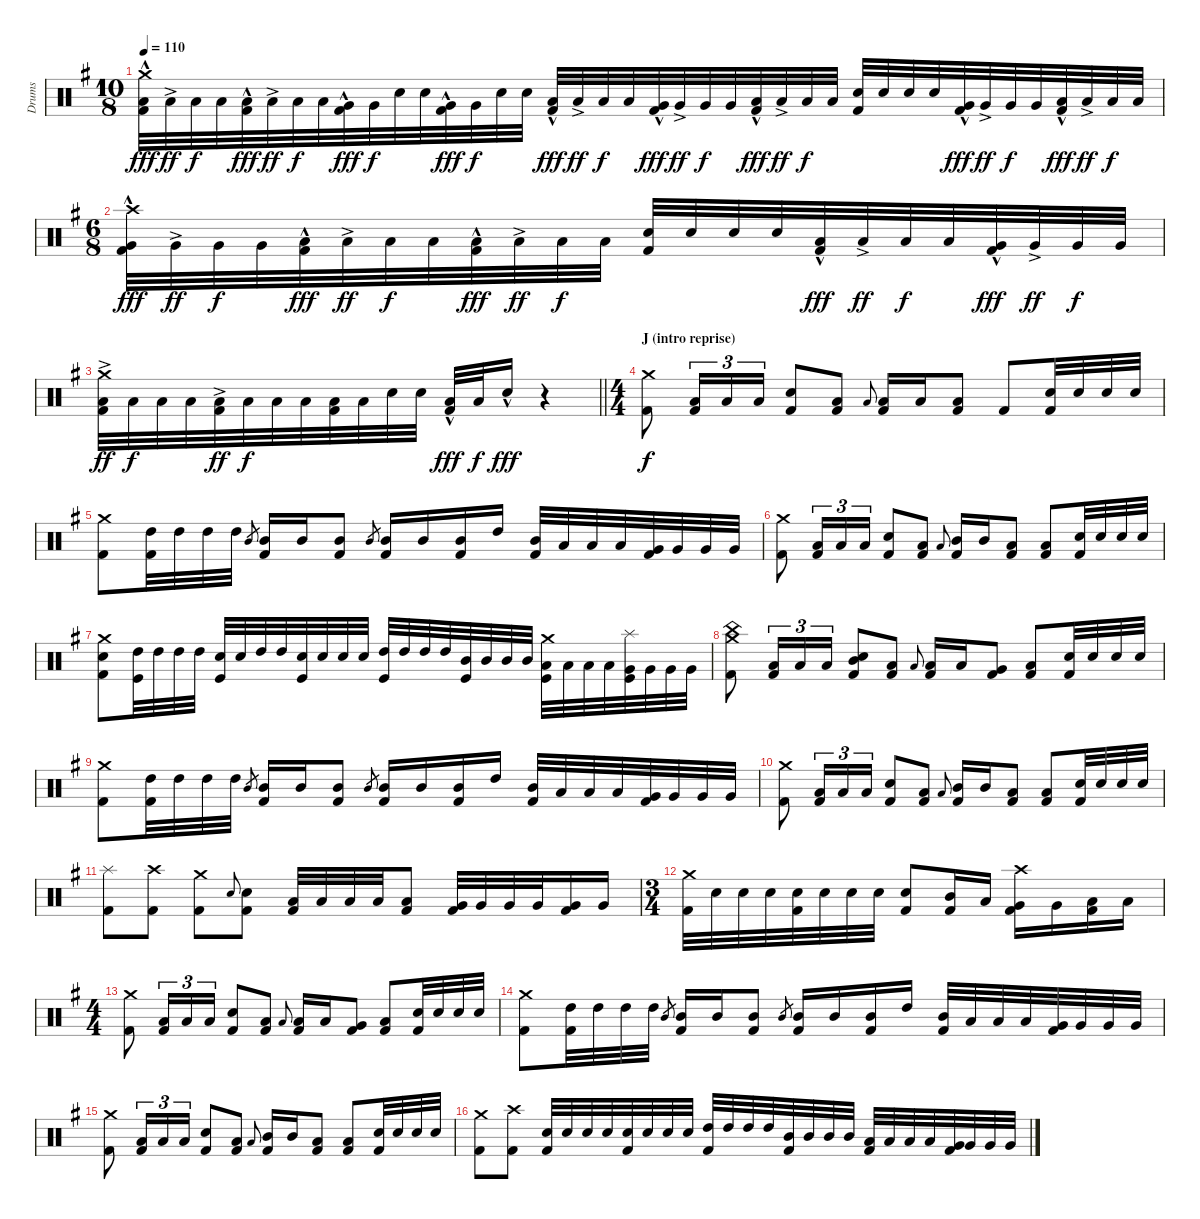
\track ("Drums" "Drums") {instrument percussion}
\staff {score}
\articulation defaults
\ts (10 8)
\tempo 110
\clef neutral
\ks eminor
("Crash medium (hit)" "Low Floor Tom (hit)"{hac} "Kick (hit) 2").32{dy fff} "Low Floor Tom (hit)"{ac}.32{dy ff} "Low Floor Tom (hit)".32{dy f} "Low Floor Tom (hit)".32 ("Low Floor Tom (hit)"{hac} "Kick (hit) 2").32{dy fff} "Low Floor Tom (hit)"{ac}.32{dy ff} "Low Floor Tom (hit)".32{dy f} "Low Floor Tom (hit)".32 ("Very Low Tom (hit)"{hac} "Kick (hit) 2").32{dy fff} "Very Low Tom (hit)".32{dy f} "Snare (hit) 2".32 "Snare (hit) 2".32 ("Very Low Tom (hit)"{hac} "Kick (hit) 2").32{dy fff} "Very Low Tom (hit)".32{dy f} "Snare (hit) 2".32 "Snare (hit) 2".32 ("Low Tom (hit)"{hac} "Kick (hit) 2").32{dy fff} "Low Tom (hit)"{ac}.32{dy ff} "Low Tom (hit)".32{dy f} "Low Tom (hit)".32 ("Very Low Tom (hit)"{hac} "Kick (hit) 2").32{dy fff} "Very Low Tom (hit)"{ac}.32{dy ff} "Very Low Tom (hit)".32{dy f} "Very Low Tom (hit)".32 ("Low Floor Tom (hit)"{hac} "Kick (hit) 2").32{dy fff} "Low Floor Tom (hit)"{ac}.32{dy ff} "Low Floor Tom (hit)".32{dy f} "Low Floor Tom (hit)".32 ("Snare (hit) 2" "Kick (hit) 2").32 "Snare (hit) 2".32 "Snare (hit) 2".32 "Snare (hit) 2".32 ("Very Low Tom (hit)"{hac} "Kick (hit) 2").32{dy fff} "Very Low Tom (hit)"{ac}.32{dy ff} "Very Low Tom (hit)".32{dy f} "Very Low Tom (hit)".32 ("Low Floor Tom (hit)"{hac} "Kick (hit) 2").32{dy fff} "Low Floor Tom (hit)"{ac}.32{dy ff} "Low Floor Tom (hit)".32{dy f} "Low Floor Tom (hit)".32 |
\ts (6 8)
("Crash high (hit)" "Very Low Tom (hit)"{hac} "Kick (hit) 2").32{dy fff} "Very Low Tom (hit)"{ac}.32{dy ff} "Very Low Tom (hit)".32{dy f} "Very Low Tom (hit)".32 ("Low Tom (hit)"{hac} "Kick (hit) 2").32{dy fff} "Low Tom (hit)"{ac}.32{dy ff} "Low Tom (hit)".32{dy f} "Low Tom (hit)".32 ("Low Tom (hit)"{hac} "Kick (hit) 2").32{dy fff} "Low Tom (hit)"{ac}.32{dy ff} "Low Tom (hit)".32{dy f} "Low Tom (hit)".32 ("Snare (hit) 2" "Kick (hit) 2").32 "Snare (hit) 2".32 "Snare (hit) 2".32 "Snare (hit) 2".32 ("Low Tom (hit)"{hac} "Kick (hit) 2").32{dy fff} "Low Tom (hit)"{ac}.32{dy ff} "Low Tom (hit)".32{dy f} "Low Tom (hit)".32 ("Very Low Tom (hit)"{hac} "Kick (hit) 2").32{dy fff} "Very Low Tom (hit)"{ac}.32{dy ff} "Very Low Tom (hit)".32{dy f} "Very Low Tom (hit)".32 |
\barLineRight lightlight
("Crash medium (hit)" "Low Floor Tom (hit)"{ac} "Kick (hit) 2").32{dy ff} "Low Floor Tom (hit)".32{dy f} "Low Floor Tom (hit)".32 "Low Floor Tom (hit)".32 ("Low Floor Tom (hit)"{ac} "Kick (hit) 2").32{dy ff} "Low Floor Tom (hit)".32{dy f} "Low Floor Tom (hit)".32 "Low Floor Tom (hit)".32 ("Low Floor Tom (hit)" "Kick (hit) 2").32 "Low Floor Tom (hit)".32 "Snare (hit) 2".32 "Snare (hit) 2".32 ("Low Floor Tom (hit)"{hac} "Kick (hit) 2").32{dy fff} "Low Floor Tom (hit)".32{dy f} "Snare (hit) 2"{hac}.16{dy fff} r.4 |
\ts (4 4)
\section ("" "J (intro reprise)")
("Crash medium (hit)" "Kick (hit) 2").8{dy f} ("Low Tom (hit)" "Kick (hit) 2").16{tu (3 2)} "Low Tom (hit)".16{tu (3 2)} "Low Tom (hit)".16{tu (3 2)} ("Electric Snare (hit)" "Kick (hit) 2").8 ("Low Tom (hit)" "Kick (hit) 2").8 "Low Tom (hit)".8{gr onbeat} ("Low Tom (hit)" "Kick (hit) 2").16 "Low Tom (hit)".16 ("Low Tom (hit)" "Kick (hit) 2").8 "Kick (hit) 2".8 ("Snare (hit) 2" "Kick (hit) 2").32 "Snare (hit) 2".32 "Snare (hit) 2".32 "Snare (hit) 2".32 |
("Crash medium (hit)" "Kick (hit) 2").8 ("High Tom (hit)" "Kick (hit) 2").32 "High Tom (hit)".32 "High Tom (hit)".32 "High Tom (hit)".32 "Mid Tom (hit)".8{gr} ("Mid Tom (hit)" "Kick (hit) 2").16 "Mid Tom (hit)".16 ("Mid Tom (hit)" "Kick (hit) 2").8 "Mid Tom (hit)".8{gr} ("Mid Tom (hit)" "Kick (hit) 2").16 "Mid Tom (hit)".16 ("Mid Tom (hit)" "Kick (hit) 2").16 "High Tom (hit)".16 ("Mid Tom (hit)" "Kick (hit) 2").32 "Low Tom (hit)".32 "Low Tom (hit)".32 "Low Tom (hit)".32 ("Very Low Tom (hit)" "Kick (hit) 2").32 "Very Low Tom (hit)".32 "Very Low Tom (hit)".32 "Very Low Tom (hit)".32 |
("Crash medium (hit)" "Kick (hit) 2").8 ("Low Tom (hit)" "Kick (hit) 2").16{tu (3 2)} "Low Tom (hit)".16{tu (3 2)} "Low Tom (hit)".16{tu (3 2)} ("Electric Snare (hit)" "Kick (hit) 2").8 ("Low Tom (hit)" "Kick (hit) 2").8 "Low Tom (hit)".8{gr onbeat} ("Mid Tom (hit)" "Kick (hit) 2").16 "Mid Tom (hit)".16 ("Low Floor Tom (hit)" "Kick (hit) 2").8 ("Low Floor Tom (hit)" "Kick (hit) 2").8 ("Snare (hit) 2" "Kick (hit) 2").32 "Snare (hit) 2".32 "Snare (hit) 2".32 "Snare (hit) 2".32 |
("Crash medium (hit)" "Snare (hit) 2" "Kick (hit) 2").8 ("High Tom (hit)" "Kick (hit)").32 "High Tom (hit)".32 "High Tom (hit)".32 "High Tom (hit)".32 ("Electric Snare (hit)" "Kick (hit)").32 "Electric Snare (hit)".32 "High Tom (hit)".32 "High Tom (hit)".32 ("Electric Snare (hit)" "Kick (hit)").32 "Electric Snare (hit)".32 "Electric Snare (hit)".32 "Electric Snare (hit)".32 ("High Tom (hit)" "Kick (hit)").32 "High Tom (hit)".32 "High Tom (hit)".32 "High Tom (hit)".32 ("Mid Tom (hit)" "Kick (hit)").32 "Mid Tom (hit)".32 "Mid Tom (hit)".32 "Mid Tom (hit)".32 ("Crash medium (hit)" "Low Tom (hit)" "Kick (hit)").32 "Low Tom (hit)".32 "Low Tom (hit)".32 "Low Tom (hit)".32 ("Splash (hit)" "Very Low Tom (hit)" "Kick (hit)").32 "Very Low Tom (hit)".32 "Very Low Tom (hit)".32 "Very Low Tom (hit)".32 |
("China (hit)" "Crash medium (hit)" "Kick (hit) 2").8 ("Low Tom (hit)" "Kick (hit) 2").16{tu (3 2)} "Low Tom (hit)".16{tu (3 2)} "Low Tom (hit)".16{tu (3 2)} ("Mid Tom (hit)" "Electric Snare (hit)" "Kick (hit) 2").8 ("Low Tom (hit)" "Kick (hit) 2").8 "Low Tom (hit)".8{gr onbeat} ("Low Tom (hit)" "Kick (hit) 2").16 "Low Tom (hit)".16 ("Very Low Tom (hit)" "Kick (hit) 2").8 ("Low Floor Tom (hit)" "Kick (hit) 2").8 ("Snare (hit) 2" "Kick (hit) 2").32 "Snare (hit) 2".32 "Snare (hit) 2".32 "Snare (hit) 2".32 |
("Crash medium (hit)" "Kick (hit) 2").8 ("High Tom (hit)" "Kick (hit) 2").32 "High Tom (hit)".32 "High Tom (hit)".32 "High Tom (hit)".32 "Mid Tom (hit)".8{gr} ("Mid Tom (hit)" "Kick (hit) 2").16 "Mid Tom (hit)".16 ("Mid Tom (hit)" "Kick (hit) 2").8 "Mid Tom (hit)".8{gr} ("Mid Tom (hit)" "Kick (hit) 2").16 "Mid Tom (hit)".16 ("Mid Tom (hit)" "Kick (hit) 2").16 "High Tom (hit)".16 ("Mid Tom (hit)" "Kick (hit) 2").32 "Low Tom (hit)".32 "Low Tom (hit)".32 "Low Tom (hit)".32 ("Very Low Tom (hit)" "Kick (hit) 2").32 "Very Low Tom (hit)".32 "Very Low Tom (hit)".32 "Very Low Tom (hit)".32 |
("Crash medium (hit)" "Kick (hit) 2").8 ("Low Tom (hit)" "Kick (hit) 2").16{tu (3 2)} "Low Tom (hit)".16{tu (3 2)} "Low Tom (hit)".16{tu (3 2)} ("Electric Snare (hit)" "Kick (hit) 2").8 ("Low Tom (hit)" "Kick (hit) 2").8 "Low Tom (hit)".8{gr onbeat} ("Mid Tom (hit)" "Kick (hit) 2").16 "Mid Tom (hit)".16 ("Low Floor Tom (hit)" "Kick (hit) 2").8 ("Low Floor Tom (hit)" "Kick (hit) 2").8 ("Snare (hit) 2" "Kick (hit) 2").32 "Snare (hit) 2".32 "Snare (hit) 2".32 "Snare (hit) 2".32 |
("Splash (hit)" "Kick (hit) 2").8 ("Crash high (hit)" "Kick (hit) 2").8 ("Crash medium (hit)" "Kick (hit) 2").8 "Electric Snare (hit)".8{gr onbeat} ("Electric Snare (hit)" "Kick (hit) 2").8 ("Low Tom (hit)" "Kick (hit) 2").32 "Low Tom (hit)".32 "Low Tom (hit)".32 "Low Tom (hit)".32 ("Low Tom (hit)" "Kick (hit) 2").8 ("Very Low Tom (hit)" "Kick (hit) 2").32 "Very Low Tom (hit)".32 "Very Low Tom (hit)".32 "Very Low Tom (hit)".32 ("Very Low Tom (hit)" "Kick (hit) 2").16 "Very Low Tom (hit)".16 |
\ts (3 4)
("Crash medium (hit)" "Kick (hit) 2").32 "Snare (hit) 2".32 "Snare (hit) 2".32 "Snare (hit) 2".32 ("Snare (hit) 2" "Kick (hit) 2").32 "Snare (hit) 2".32 "Snare (hit) 2".32 "Snare (hit) 2".32 ("Electric Snare (hit)" "Kick (hit) 2").8 ("Mid Tom (hit)" "Kick (hit) 2").16 "Low Tom (hit)".16 ("Crash high (hit)" "Very Low Tom (hit)" "Kick (hit) 2").16 "Very Low Tom (hit)".16 ("Low Floor Tom (hit)" "Kick (hit) 2").16 "Low Floor Tom (hit)".16 |
\ts (4 4)
("Crash medium (hit)" "Kick (hit) 2").8 ("Low Tom (hit)" "Kick (hit) 2").16{tu (3 2)} "Low Tom (hit)".16{tu (3 2)} "Low Tom (hit)".16{tu (3 2)} ("Electric Snare (hit)" "Kick (hit) 2").8 ("Low Tom (hit)" "Kick (hit) 2").8 "Low Tom (hit)".8{gr onbeat} ("Low Tom (hit)" "Kick (hit) 2").16 "Low Tom (hit)".16 ("Very Low Tom (hit)" "Kick (hit) 2").8 ("Low Floor Tom (hit)" "Kick (hit) 2").8 ("Snare (hit) 2" "Kick (hit) 2").32 "Snare (hit) 2".32 "Snare (hit) 2".32 "Snare (hit) 2".32 |
("Crash medium (hit)" "Kick (hit) 2").8 ("High Tom (hit)" "Kick (hit) 2").32 "High Tom (hit)".32 "High Tom (hit)".32 "High Tom (hit)".32 "Mid Tom (hit)".8{gr} ("Mid Tom (hit)" "Kick (hit) 2").16 "Mid Tom (hit)".16 ("Mid Tom (hit)" "Kick (hit) 2").8 "Mid Tom (hit)".8{gr} ("Mid Tom (hit)" "Kick (hit) 2").16 "Mid Tom (hit)".16 ("Mid Tom (hit)" "Kick (hit) 2").16 "High Tom (hit)".16 ("Mid Tom (hit)" "Kick (hit) 2").32 "Low Tom (hit)".32 "Low Tom (hit)".32 "Low Tom (hit)".32 ("Very Low Tom (hit)" "Kick (hit) 2").32 "Very Low Tom (hit)".32 "Very Low Tom (hit)".32 "Very Low Tom (hit)".32 |
("Crash medium (hit)" "Kick (hit) 2").8 ("Low Tom (hit)" "Kick (hit) 2").16{tu (3 2)} "Low Tom (hit)".16{tu (3 2)} "Low Tom (hit)".16{tu (3 2)} ("Electric Snare (hit)" "Kick (hit) 2").8 ("Low Tom (hit)" "Kick (hit) 2").8 "Low Tom (hit)".8{gr onbeat} ("Mid Tom (hit)" "Kick (hit) 2").16 "Mid Tom (hit)".16 ("Low Floor Tom (hit)" "Kick (hit) 2").8 ("Low Floor Tom (hit)" "Kick (hit) 2").8 ("Snare (hit) 2" "Kick (hit) 2").32 "Snare (hit) 2".32 "Snare (hit) 2".32 "Snare (hit) 2".32 |
("Crash medium (hit)" "Kick (hit) 2").8 ("Crash high (hit)" "Kick (hit) 2").8 ("Snare (hit) 2" "Kick (hit) 2").32 "Snare (hit) 2".32 "Snare (hit) 2".32 "Snare (hit) 2".32 ("Snare (hit) 2" "Kick (hit) 2").32 "Snare (hit) 2".32 "Snare (hit) 2".32 "Snare (hit) 2".32 ("High Tom (hit)" "Kick (hit) 2").32 "High Tom (hit)".32 "High Tom (hit)".32 "High Tom (hit)".32 ("Mid Tom (hit)" "Kick (hit) 2").32 "Mid Tom (hit)".32 "Mid Tom (hit)".32 "Mid Tom (hit)".32 ("Low Tom (hit)" "Kick (hit) 2").32 "Low Tom (hit)".32 "Low Tom (hit)".32 "Low Tom (hit)".32 ("Very Low Tom (hit)" "Kick (hit) 2").32 "Very Low Tom (hit)".32 "Very Low Tom (hit)".32 "Very Low Tom (hit)".32
